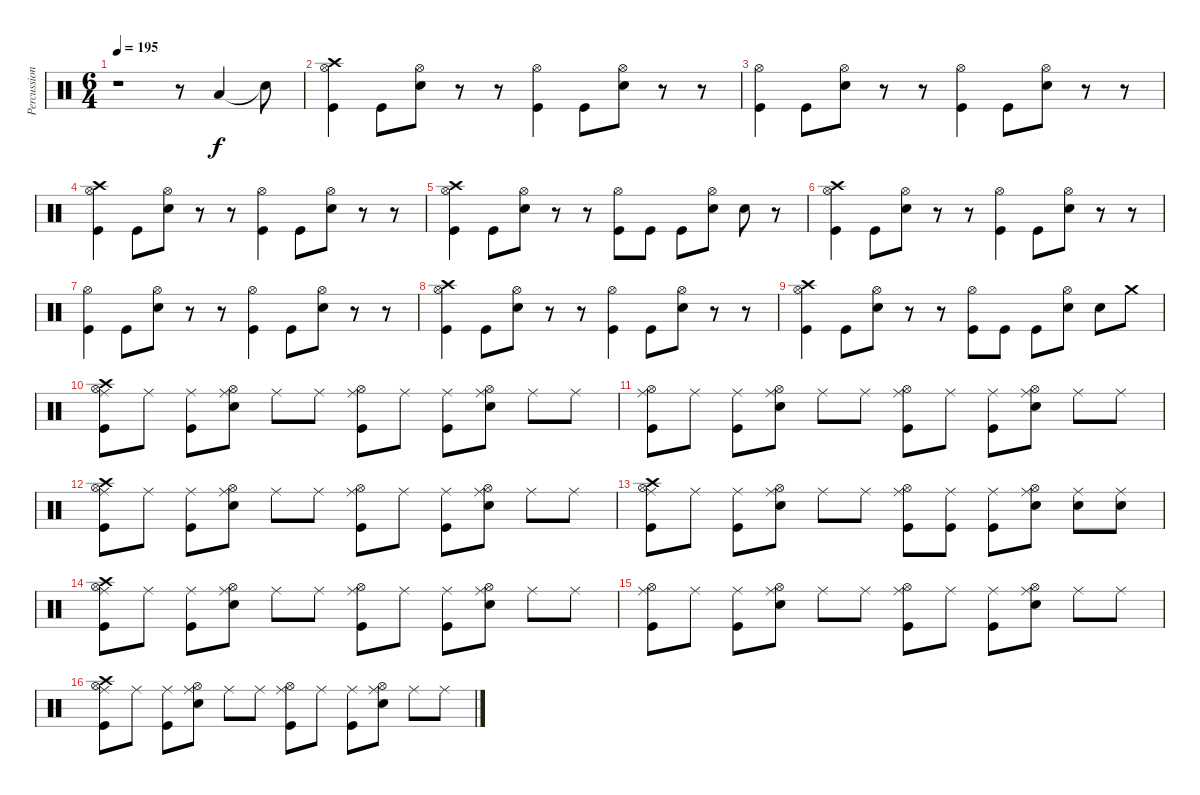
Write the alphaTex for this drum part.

\track ("Percussion" "Percussion") {instrument percussion}
\staff {score}
\articulation defaults
\ts (6 4)
\tempo 195
\clef neutral
\ks c
r.1{dy f} r.8 "Low Floor Tom (hit)".4 "Snare (hit)"{t}.8 |
("Crash high (hit)" "Hi-Hat (open)" "Kick (hit)").4 "Kick (hit)".8 ("Hi-Hat (open)" "Electric Snare (hit)").8 r.8 r.8 ("Hi-Hat (open)" "Kick (hit)").4 "Kick (hit)".8 ("Hi-Hat (open)" "Electric Snare (hit)").8 r.8 r.8 |
("Hi-Hat (open)" "Kick (hit)").4 "Kick (hit)".8 ("Hi-Hat (open)" "Electric Snare (hit)").8 r.8 r.8 ("Hi-Hat (open)" "Kick (hit)").4 "Kick (hit)".8 ("Hi-Hat (open)" "Electric Snare (hit)").8 r.8 r.8 |
("Crash high (hit)" "Hi-Hat (open)" "Kick (hit)").4 "Kick (hit)".8 ("Hi-Hat (open)" "Electric Snare (hit)").8 r.8 r.8 ("Hi-Hat (open)" "Kick (hit)").4 "Kick (hit)".8 ("Hi-Hat (open)" "Electric Snare (hit)").8 r.8 r.8 |
("Crash high (hit)" "Hi-Hat (open)" "Kick (hit)").4 "Kick (hit)".8 ("Hi-Hat (open)" "Electric Snare (hit)").8 r.8 r.8 ("Hi-Hat (open)" "Kick (hit)").8 "Kick (hit)".8 "Kick (hit)".8 ("Hi-Hat (open)" "Electric Snare (hit)").8 "Electric Snare (hit)".8 r.8 |
("Crash high (hit)" "Hi-Hat (open)" "Kick (hit)").4 "Kick (hit)".8 ("Hi-Hat (open)" "Electric Snare (hit)").8 r.8 r.8 ("Hi-Hat (open)" "Kick (hit)").4 "Kick (hit)".8 ("Hi-Hat (open)" "Electric Snare (hit)").8 r.8 r.8 |
("Hi-Hat (open)" "Kick (hit)").4 "Kick (hit)".8 ("Hi-Hat (open)" "Electric Snare (hit)").8 r.8 r.8 ("Hi-Hat (open)" "Kick (hit)").4 "Kick (hit)".8 ("Hi-Hat (open)" "Electric Snare (hit)").8 r.8 r.8 |
("Crash high (hit)" "Hi-Hat (open)" "Kick (hit)").4 "Kick (hit)".8 ("Hi-Hat (open)" "Electric Snare (hit)").8 r.8 r.8 ("Hi-Hat (open)" "Kick (hit)").4 "Kick (hit)".8 ("Hi-Hat (open)" "Electric Snare (hit)").8 r.8 r.8 |
("Crash high (hit)" "Hi-Hat (open)" "Kick (hit)").4 "Kick (hit)".8 ("Hi-Hat (open)" "Electric Snare (hit)").8 r.8 r.8 ("Hi-Hat (open)" "Kick (hit)").8 "Kick (hit)".8 "Kick (hit)".8 ("Hi-Hat (open)" "Electric Snare (hit)").8 "Electric Snare (hit)".8 "Crash medium (hit)".8 |
("Crash high (hit)" "Ride (middle)" "Hi-Hat (open)" "Kick (hit)").8 "Ride (middle)".8 ("Ride (middle)" "Kick (hit)").8 ("Ride (middle)" "Electric Snare (hit)" "Hi-Hat (open)").8 "Ride (middle)".8 "Ride (middle)".8 ("Ride (middle)" "Hi-Hat (open)" "Kick (hit)").8 "Ride (middle)".8 ("Ride (middle)" "Kick (hit)").8 ("Ride (middle)" "Electric Snare (hit)" "Hi-Hat (open)").8 "Ride (middle)".8 "Ride (middle)".8 |
("Ride (middle)" "Hi-Hat (open)" "Kick (hit)").8 "Ride (middle)".8 ("Ride (middle)" "Kick (hit)").8 ("Ride (middle)" "Electric Snare (hit)" "Hi-Hat (open)").8 "Ride (middle)".8 "Ride (middle)".8 ("Ride (middle)" "Hi-Hat (open)" "Kick (hit)").8 "Ride (middle)".8 ("Ride (middle)" "Kick (hit)").8 ("Ride (middle)" "Electric Snare (hit)" "Hi-Hat (open)").8 "Ride (middle)".8 "Ride (middle)".8 |
("Crash high (hit)" "Ride (middle)" "Hi-Hat (open)" "Kick (hit)").8 "Ride (middle)".8 ("Ride (middle)" "Kick (hit)").8 ("Ride (middle)" "Electric Snare (hit)" "Hi-Hat (open)").8 "Ride (middle)".8 "Ride (middle)".8 ("Ride (middle)" "Hi-Hat (open)" "Kick (hit)").8 "Ride (middle)".8 ("Ride (middle)" "Kick (hit)").8 ("Ride (middle)" "Electric Snare (hit)" "Hi-Hat (open)").8 "Ride (middle)".8 "Ride (middle)".8 |
("Crash high (hit)" "Ride (middle)" "Hi-Hat (open)" "Kick (hit)").8 "Ride (middle)".8 ("Ride (middle)" "Kick (hit)").8 ("Ride (middle)" "Electric Snare (hit)" "Hi-Hat (open)").8 "Ride (middle)".8 "Ride (middle)".8 ("Ride (middle)" "Hi-Hat (open)" "Kick (hit)").8 ("Ride (middle)" "Kick (hit)").8 ("Ride (middle)" "Kick (hit)").8 ("Ride (middle)" "Electric Snare (hit)" "Hi-Hat (open)").8 ("Ride (middle)" "Electric Snare (hit)").8 ("Ride (middle)" "Electric Snare (hit)").8 |
("Crash high (hit)" "Ride (middle)" "Hi-Hat (open)" "Kick (hit)").8 "Ride (middle)".8 ("Ride (middle)" "Kick (hit)").8 ("Ride (middle)" "Electric Snare (hit)" "Hi-Hat (open)").8 "Ride (middle)".8 "Ride (middle)".8 ("Ride (middle)" "Hi-Hat (open)" "Kick (hit)").8 "Ride (middle)".8 ("Ride (middle)" "Kick (hit)").8 ("Ride (middle)" "Electric Snare (hit)" "Hi-Hat (open)").8 "Ride (middle)".8 "Ride (middle)".8 |
("Ride (middle)" "Hi-Hat (open)" "Kick (hit)").8 "Ride (middle)".8 ("Ride (middle)" "Kick (hit)").8 ("Ride (middle)" "Electric Snare (hit)" "Hi-Hat (open)").8 "Ride (middle)".8 "Ride (middle)".8 ("Ride (middle)" "Hi-Hat (open)" "Kick (hit)").8 "Ride (middle)".8 ("Ride (middle)" "Kick (hit)").8 ("Ride (middle)" "Electric Snare (hit)" "Hi-Hat (open)").8 "Ride (middle)".8 "Ride (middle)".8 |
("Crash high (hit)" "Ride (middle)" "Hi-Hat (open)" "Kick (hit)").8 "Ride (middle)".8 ("Ride (middle)" "Kick (hit)").8 ("Ride (middle)" "Electric Snare (hit)" "Hi-Hat (open)").8 "Ride (middle)".8 "Ride (middle)".8 ("Ride (middle)" "Hi-Hat (open)" "Kick (hit)").8 "Ride (middle)".8 ("Ride (middle)" "Kick (hit)").8 ("Ride (middle)" "Electric Snare (hit)" "Hi-Hat (open)").8 "Ride (middle)".8 "Ride (middle)".8
